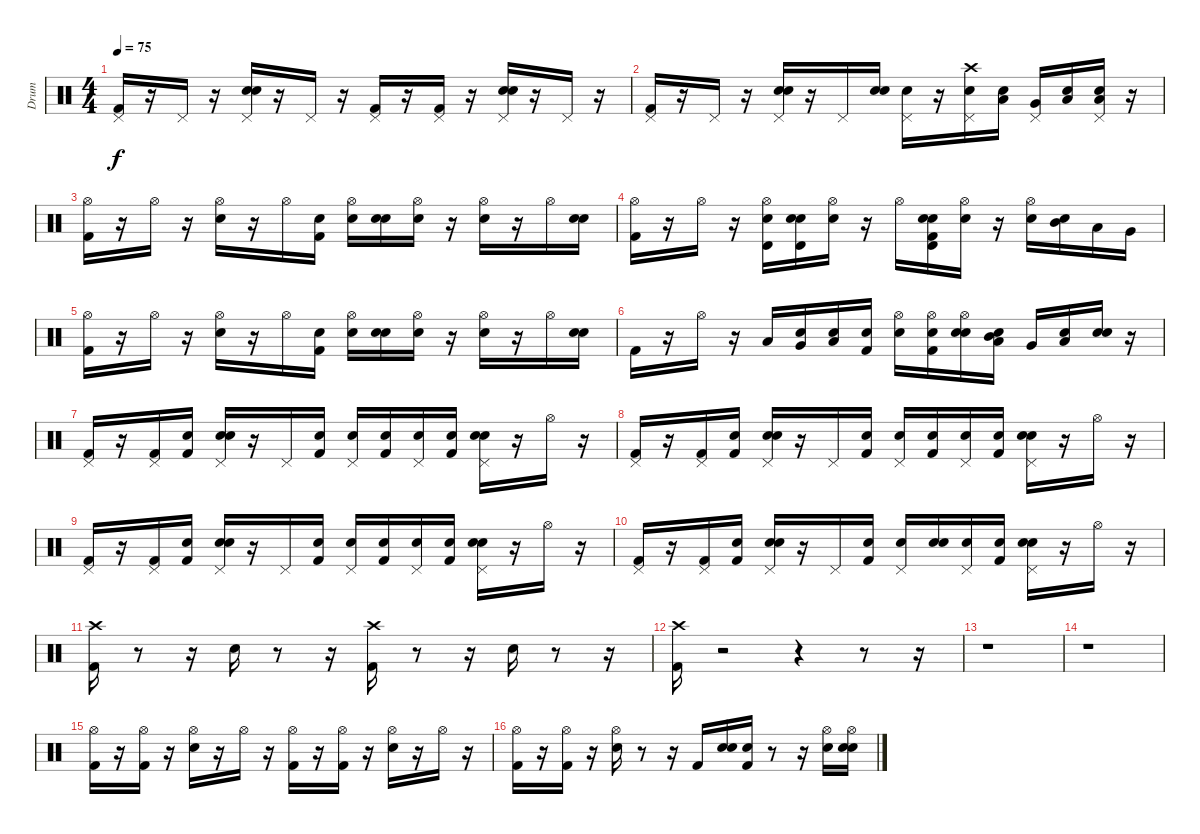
\track ("Drum" "Drum") {instrument percussion}
\staff {score}
\articulation defaults
\ts (4 4)
\tempo 75
\clef neutral
\ks c
("Kick (hit) 2" "Pedal Hi-Hat (hit)").16{dy f} r.16 "Pedal Hi-Hat (hit)".16 r.16 ("Electric Snare (hit)" "Snare (hit) 2" "Pedal Hi-Hat (hit)").16 r.16 "Pedal Hi-Hat (hit)".16 r.16 ("Kick (hit) 2" "Pedal Hi-Hat (hit)").16 r.16 ("Pedal Hi-Hat (hit)" "Kick (hit) 2").16 r.16 ("Electric Snare (hit)" "Snare (hit) 2" "Pedal Hi-Hat (hit)").16 r.16 "Pedal Hi-Hat (hit)".16 r.16 |
("Kick (hit) 2" "Pedal Hi-Hat (hit)").16 r.16 "Pedal Hi-Hat (hit)".16 r.16 ("Electric Snare (hit)" "Snare (hit) 2" "Pedal Hi-Hat (hit)").16 r.16 "Pedal Hi-Hat (hit)".16 ("Snare (hit)" "Electric Snare (hit)").16 ("Snare (hit)" "Pedal Hi-Hat (hit)").16 r.16 ("Crash high (hit)" "Snare (hit) 2" "Pedal Hi-Hat (hit)").16 ("Snare (hit)" "Low Tom (hit)").16 ("Very Low Tom (hit)" "Pedal Hi-Hat (hit)").16 ("Snare (hit)" "Low Floor Tom (hit)").16 ("Snare (hit)" "Low Tom (hit)" "Pedal Hi-Hat (hit)").16 r.16 |
("Hi-Hat (open)" "Kick (hit) 2").16 r.16 "Hi-Hat (open)".16 r.16 ("Hi-Hat (open)" "Snare (hit) 2").16 r.16 "Hi-Hat (open)".16 ("Snare (hit)" "Kick (hit) 2").16 ("Snare (hit)" "Hi-Hat (open)").16 ("Snare (hit)" "Electric Snare (hit)").16 ("Snare (hit)" "Hi-Hat (open)").16 r.16 ("Hi-Hat (open)" "Snare (hit) 2").16 r.16 "Hi-Hat (open)".16 ("Snare (hit)" "Snare (hit) 2").16 |
("Hi-Hat (open)" "Kick (hit) 2").16 r.16 "Hi-Hat (open)".16 r.16 ("Hi-Hat (open)" "Timbale high (hit)" "Snare (hit) 2").16 ("Snare (hit)" "Timbale high (hit)" "Snare (hit) 2").16 ("Snare (hit)" "Hi-Hat (open)").16 r.16 "Hi-Hat (open)".16 ("Snare (hit)" "Kick (hit) 2" "Timbale high (hit)" "Snare (hit) 2").16 ("Snare (hit)" "Hi-Hat (open)").16 r.16 ("Hi-Hat (open)" "Snare (hit) 2").16 ("Snare (hit)" "Mid Tom (hit)").16 "Low Tom (hit)".16 "Very Low Tom (hit)".16 |
("Hi-Hat (open)" "Kick (hit) 2").16 r.16 "Hi-Hat (open)".16 r.16 ("Hi-Hat (open)" "Snare (hit) 2").16 r.16 "Hi-Hat (open)".16 ("Snare (hit)" "Kick (hit) 2").16 ("Snare (hit)" "Hi-Hat (open)").16 ("Snare (hit)" "Electric Snare (hit)").16 ("Snare (hit)" "Hi-Hat (open)").16 r.16 ("Hi-Hat (open)" "Snare (hit) 2").16 r.16 "Hi-Hat (open)".16 ("Snare (hit)" "Snare (hit) 2").16 |
"Kick (hit) 2".16 r.16 "Hi-Hat (open)".16 r.16 "Low Tom (hit)".16 ("Snare (hit)" "Very Low Tom (hit)").16 ("Snare (hit)" "Low Floor Tom (hit)").16 ("Snare (hit)" "Kick (hit) 2").16 ("Snare (hit)" "Hi-Hat (open)").16 ("Snare (hit)" "Hi-Hat (open)" "Kick (hit) 2").16 ("Snare (hit)" "Hi-Hat (open)" "Snare (hit) 2").16 ("Snare (hit)" "Mid Tom (hit)" "Low Tom (hit)").16 "Very Low Tom (hit)".16 ("Snare (hit)" "Low Floor Tom (hit)").16 ("Snare (hit)" "Snare (hit) 2").16 r.16 |
("Pedal Hi-Hat (hit)" "Kick (hit) 2").16 r.16 ("Pedal Hi-Hat (hit)" "Kick (hit) 2").16 ("Snare (hit)" "Kick (hit) 2").16 ("Snare (hit)" "Snare (hit) 2" "Pedal Hi-Hat (hit)").16 r.16 "Pedal Hi-Hat (hit)".16 ("Snare (hit)" "Kick (hit) 2").16 ("Snare (hit)" "Pedal Hi-Hat (hit)").16 ("Snare (hit)" "Kick (hit) 2").16 ("Snare (hit)" "Pedal Hi-Hat (hit)").16 ("Snare (hit)" "Kick (hit) 2").16 ("Snare (hit)" "Pedal Hi-Hat (hit)" "Snare (hit) 2").16 r.16 "Hi-Hat (open)".16 r.16 |
("Pedal Hi-Hat (hit)" "Kick (hit) 2").16 r.16 ("Pedal Hi-Hat (hit)" "Kick (hit) 2").16 ("Snare (hit)" "Kick (hit) 2").16 ("Snare (hit)" "Snare (hit) 2" "Pedal Hi-Hat (hit)").16 r.16 "Pedal Hi-Hat (hit)".16 ("Snare (hit)" "Kick (hit) 2").16 ("Snare (hit)" "Pedal Hi-Hat (hit)").16 ("Snare (hit)" "Kick (hit) 2").16 ("Snare (hit)" "Pedal Hi-Hat (hit)").16 ("Snare (hit)" "Kick (hit) 2").16 ("Snare (hit)" "Pedal Hi-Hat (hit)" "Snare (hit) 2").16 r.16 "Hi-Hat (open)".16 r.16 |
("Pedal Hi-Hat (hit)" "Kick (hit) 2").16 r.16 ("Pedal Hi-Hat (hit)" "Kick (hit) 2").16 ("Snare (hit)" "Kick (hit) 2").16 ("Snare (hit)" "Snare (hit) 2" "Pedal Hi-Hat (hit)").16 r.16 "Pedal Hi-Hat (hit)".16 ("Snare (hit)" "Kick (hit) 2").16 ("Snare (hit)" "Pedal Hi-Hat (hit)").16 ("Snare (hit)" "Kick (hit) 2").16 ("Snare (hit)" "Pedal Hi-Hat (hit)").16 ("Snare (hit)" "Kick (hit) 2").16 ("Snare (hit)" "Pedal Hi-Hat (hit)" "Snare (hit) 2").16 r.16 "Hi-Hat (open)".16 r.16 |
("Pedal Hi-Hat (hit)" "Kick (hit) 2").16 r.16 ("Pedal Hi-Hat (hit)" "Kick (hit) 2").16 ("Snare (hit)" "Kick (hit) 2").16 ("Snare (hit)" "Snare (hit) 2" "Pedal Hi-Hat (hit)").16 r.16 "Pedal Hi-Hat (hit)".16 ("Snare (hit)" "Kick (hit) 2").16 ("Snare (hit)" "Pedal Hi-Hat (hit)").16 ("Snare (hit)" "Snare (hit) 2").16 ("Snare (hit)" "Pedal Hi-Hat (hit)").16 ("Snare (hit)" "Kick (hit) 2").16 ("Snare (hit)" "Pedal Hi-Hat (hit)" "Snare (hit) 2").16 r.16 "Hi-Hat (open)".16 r.16 |
("Crash high (hit)" "Kick (hit) 2").16 r.8 r.16 "Snare (hit) 2".16 r.8 r.16 ("Crash high (hit)" "Kick (hit) 2").16 r.8 r.16 "Snare (hit) 2".16 r.8 r.16 |
("Crash high (hit)" "Kick (hit) 2").16 r.2 r.4 r.8 r.16 |
r.1 |
r.1 |
("Hi-Hat (open)" "Kick (hit) 2").16 r.16 ("Hi-Hat (open)" "Kick (hit) 2").16 r.16 ("Hi-Hat (open)" "Snare (hit) 2").16 r.16 "Hi-Hat (open)".16 r.16 ("Kick (hit) 2" "Hi-Hat (open)").16 r.16 ("Kick (hit) 2" "Hi-Hat (open)").16 r.16 ("Snare (hit) 2" "Hi-Hat (open)").16 r.16 "Hi-Hat (open)".16 r.16 |
("Hi-Hat (open)" "Kick (hit) 2").16 r.16 ("Hi-Hat (open)" "Kick (hit) 2").16 r.16 ("Snare (hit) 2" "Hi-Hat (open)").16 r.8 r.16 "Kick (hit) 2".16 ("Snare (hit)" "Electric Snare (hit)").16 ("Snare (hit)" "Kick (hit) 2").16 r.8 r.16 ("Hi-Hat (open)" "Snare (hit) 2").16 ("Snare (hit)" "Hi-Hat (open)" "Snare (hit) 2").16
